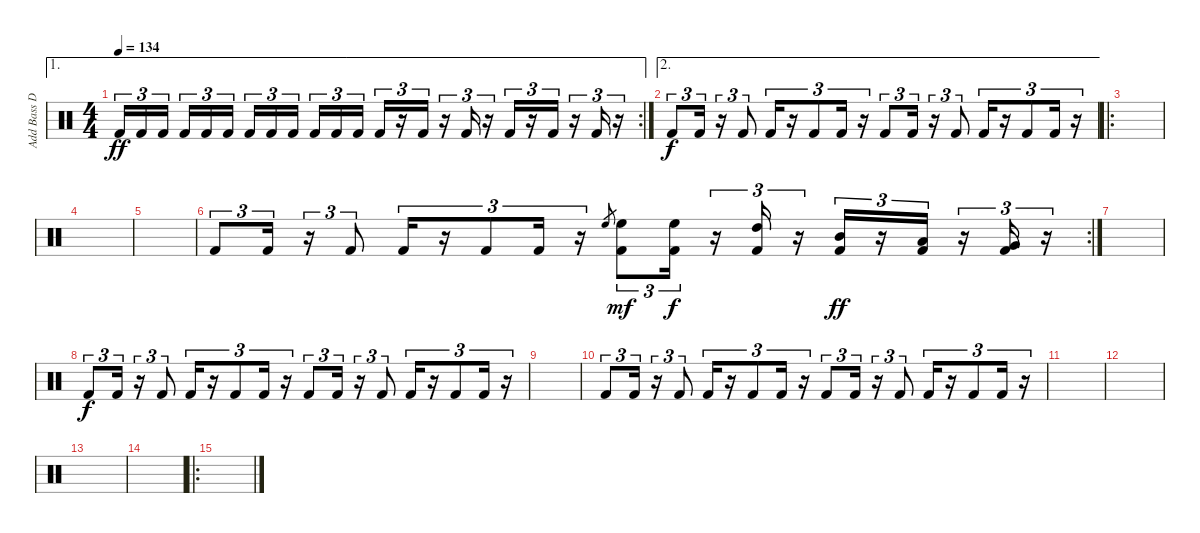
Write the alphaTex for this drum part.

\track ("Add Bass Drum" "Add Bass D") {instrument percussion}
\staff {score}
\articulation defaults
\ae 1
\rc 2
\ts (4 4)
\tempo 134
\clef neutral
\ks c "Kick (hit) 2".16{tu (3 2) dy ff} "Kick (hit) 2".16{tu (3 2)} "Kick (hit) 2".16{tu (3 2)} "Kick (hit) 2".16{tu (3 2)} "Kick (hit) 2".16{tu (3 2)} "Kick (hit) 2".16{tu (3 2)} "Kick (hit) 2".16{tu (3 2)} "Kick (hit) 2".16{tu (3 2)} "Kick (hit) 2".16{tu (3 2)} "Kick (hit) 2".16{tu (3 2)} "Kick (hit) 2".16{tu (3 2)} "Kick (hit) 2".16{tu (3 2)} "Kick (hit) 2".16{tu (3 2)}
r.16{tu (3 2)} "Kick (hit) 2".16{tu (3 2)} r.16{tu (3 2)} "Kick (hit) 2".16{tu (3 2)} r.16{tu (3 2)} "Kick (hit) 2".16{tu (3 2)} r.16{tu (3 2)} "Kick (hit) 2".16{tu (3 2)} r.16{tu (3 2)} "Kick (hit) 2".16{tu (3 2)} r.16{tu (3 2)} |
\ae 2 "Kick (hit) 2".8{tu (3 2) dy f} "Kick (hit) 2".16{tu (3 2)}
r.16{tu (3 2)} "Kick (hit) 2".8{tu (3 2)} "Kick (hit) 2".16{tu (3 2)} r.16{tu (3 2)} "Kick (hit) 2".8{tu (3 2)} "Kick (hit) 2".16{tu (3 2)} r.16{tu (3 2)} "Kick (hit) 2".8{tu (3 2)} "Kick (hit) 2".16{tu (3 2)} r.16{tu (3 2)} "Kick (hit) 2".8{tu (3 2)} "Kick (hit) 2".16{tu (3 2)} r.16{tu (3 2)} "Kick (hit) 2".8{tu (3 2)} "Kick (hit) 2".16{tu (3 2)} r.16{tu (3 2)} |
\ro
|
|
|
\rc 2 "Kick (hit) 2".8{tu (3 2)} "Kick (hit) 2".16{tu (3 2)}
r.16{tu (3 2)} "Kick (hit) 2".8{tu (3 2)} "Kick (hit) 2".16{tu (3 2)} r.16{tu (3 2)} "Kick (hit) 2".8{tu (3 2)} "Kick (hit) 2".16{tu (3 2)} r.16{tu (3 2)} "High Floor Tom (hit)".8{gr} ("High Floor Tom (hit)" "Kick (hit) 2").8{tu (3 2) dy mf} ("High Floor Tom (hit)" "Kick (hit) 2").16{tu (3 2) dy f} r.16{tu (3 2)} ("High Tom (hit)" "Kick (hit) 2").16{tu (3 2)} r.16{tu (3 2)} ("Mid Tom (hit)" "Kick (hit) 2").16{tu (3 2) dy ff} r.16{tu (3 2)} ("Low Tom (hit)" "Kick (hit) 2").16{tu (3 2)} r.16{tu (3 2)} ("Very Low Tom (hit)" "Kick (hit) 2").16{tu (3 2)} r.16{tu (3 2)} |
|
"Kick (hit) 2".8{tu (3 2) dy f} "Kick (hit) 2".16{tu (3 2)} r.16{tu (3 2)} "Kick (hit) 2".8{tu (3 2)} "Kick (hit) 2".16{tu (3 2)} r.16{tu (3 2)} "Kick (hit) 2".8{tu (3 2)} "Kick (hit) 2".16{tu (3 2)} r.16{tu (3 2)} "Kick (hit) 2".8{tu (3 2)} "Kick (hit) 2".16{tu (3 2)} r.16{tu (3 2)} "Kick (hit) 2".8{tu (3 2)} "Kick (hit) 2".16{tu (3 2)} r.16{tu (3 2)} "Kick (hit) 2".8{tu (3 2)} "Kick (hit) 2".16{tu (3 2)} r.16{tu (3 2)} |
|
"Kick (hit) 2".8{tu (3 2)} "Kick (hit) 2".16{tu (3 2)} r.16{tu (3 2)} "Kick (hit) 2".8{tu (3 2)} "Kick (hit) 2".16{tu (3 2)} r.16{tu (3 2)} "Kick (hit) 2".8{tu (3 2)} "Kick (hit) 2".16{tu (3 2)} r.16{tu (3 2)} "Kick (hit) 2".8{tu (3 2)} "Kick (hit) 2".16{tu (3 2)} r.16{tu (3 2)} "Kick (hit) 2".8{tu (3 2)} "Kick (hit) 2".16{tu (3 2)} r.16{tu (3 2)} "Kick (hit) 2".8{tu (3 2)} "Kick (hit) 2".16{tu (3 2)} r.16{tu (3 2)} |
|
|
|
|
\ro
